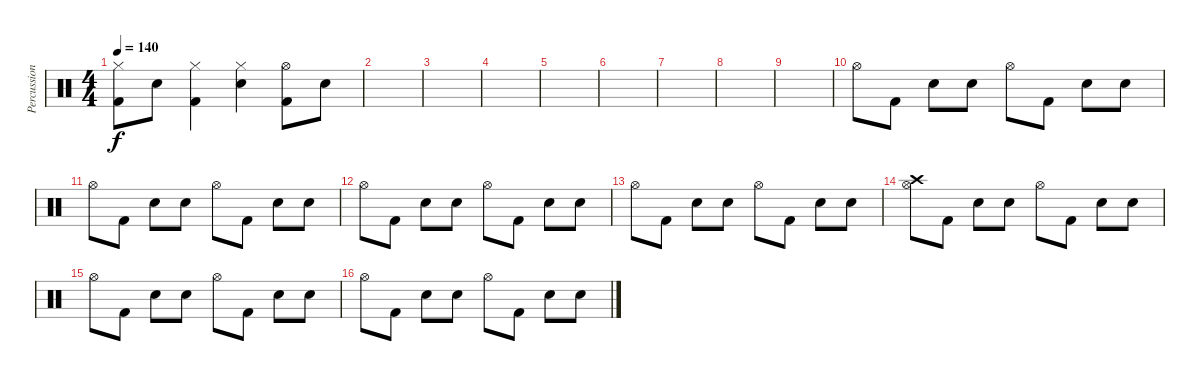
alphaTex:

\track ("Percussion" "Percussion") {instrument percussion}
\staff {score}
\articulation defaults
\ts (4 4)
\tempo 140
\clef neutral
\ks c
("Hi-Hat (closed)" "Kick (hit) 2").8{dy f} "Electric Snare (hit)".8 ("Hi-Hat (closed)" "Kick (hit) 2").4 ("Hi-Hat (closed)" "Electric Snare (hit)").4 ("Hi-Hat (open)" "Kick (hit) 2").8 "Electric Snare (hit)".8 |
|
|
|
|
|
|
|
|
"Hi-Hat (open)".8 "Kick (hit) 2".8 "Electric Snare (hit)".8 "Electric Snare (hit)".8 "Hi-Hat (open)".8 "Kick (hit) 2".8 "Electric Snare (hit)".8 "Electric Snare (hit)".8 |
"Hi-Hat (open)".8 "Kick (hit) 2".8 "Electric Snare (hit)".8 "Electric Snare (hit)".8 "Hi-Hat (open)".8 "Kick (hit) 2".8 "Electric Snare (hit)".8 "Electric Snare (hit)".8 |
"Hi-Hat (open)".8 "Kick (hit) 2".8 "Electric Snare (hit)".8 "Electric Snare (hit)".8 "Hi-Hat (open)".8 "Kick (hit) 2".8 "Electric Snare (hit)".8 "Electric Snare (hit)".8 |
"Hi-Hat (open)".8 "Kick (hit) 2".8 "Electric Snare (hit)".8 "Electric Snare (hit)".8 "Hi-Hat (open)".8 "Kick (hit) 2".8 "Electric Snare (hit)".8 "Electric Snare (hit)".8 |
("Crash high (hit)" "Hi-Hat (open)").8 "Kick (hit) 2".8 "Electric Snare (hit)".8 "Electric Snare (hit)".8 "Hi-Hat (open)".8 "Kick (hit) 2".8 "Electric Snare (hit)".8 "Electric Snare (hit)".8 |
"Hi-Hat (open)".8 "Kick (hit) 2".8 "Electric Snare (hit)".8 "Electric Snare (hit)".8 "Hi-Hat (open)".8 "Kick (hit) 2".8 "Electric Snare (hit)".8 "Electric Snare (hit)".8 |
"Hi-Hat (open)".8 "Kick (hit) 2".8 "Electric Snare (hit)".8 "Electric Snare (hit)".8 "Hi-Hat (open)".8 "Kick (hit) 2".8 "Electric Snare (hit)".8 "Electric Snare (hit)".8
